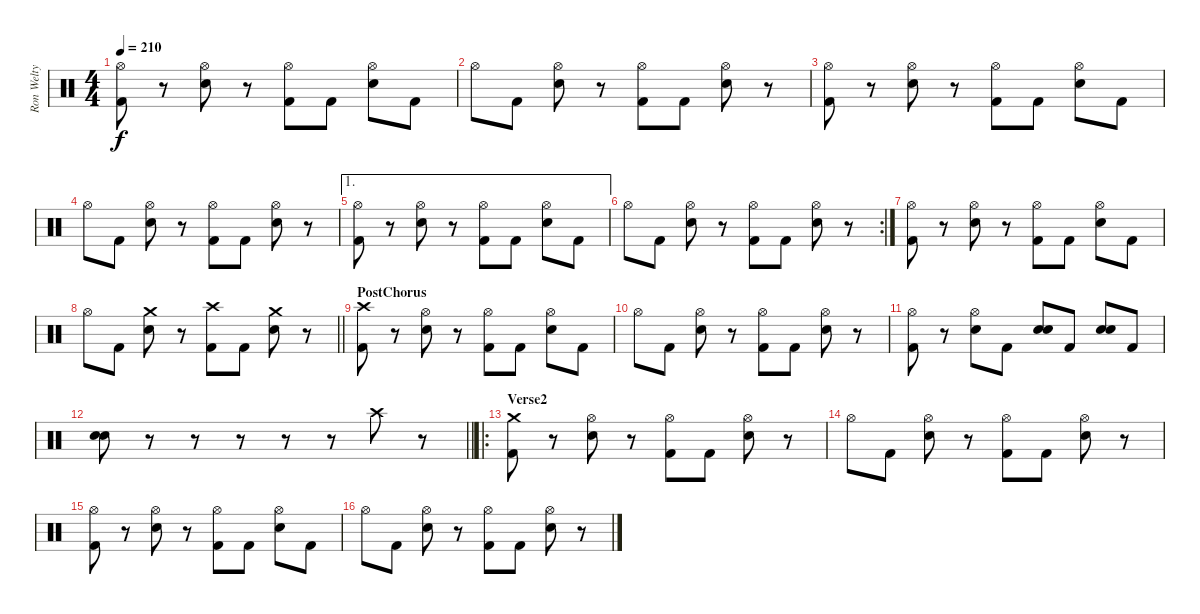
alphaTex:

\track ("Ron Welty" "Ron Welty") {instrument percussion}
\staff {score}
\articulation defaults
\ts (4 4)
\tempo 210
\clef neutral
\ks c
("Hi-Hat (open)" "Kick (hit) 2").8{dy f} r.8 ("Hi-Hat (open)" "Electric Snare (hit)").8 r.8 ("Hi-Hat (open)" "Kick (hit) 2").8 "Kick (hit) 2".8 ("Hi-Hat (open)" "Electric Snare (hit)").8 "Kick (hit) 2".8 |
"Hi-Hat (open)".8 "Kick (hit) 2".8 ("Hi-Hat (open)" "Electric Snare (hit)").8 r.8 ("Hi-Hat (open)" "Kick (hit) 2").8 "Kick (hit) 2".8 ("Hi-Hat (open)" "Electric Snare (hit)").8 r.8 |
("Hi-Hat (open)" "Kick (hit) 2").8 r.8 ("Hi-Hat (open)" "Electric Snare (hit)").8 r.8 ("Hi-Hat (open)" "Kick (hit) 2").8 "Kick (hit) 2".8 ("Hi-Hat (open)" "Electric Snare (hit)").8 "Kick (hit) 2".8 |
"Hi-Hat (open)".8 "Kick (hit) 2".8 ("Hi-Hat (open)" "Electric Snare (hit)").8 r.8 ("Hi-Hat (open)" "Kick (hit) 2").8 "Kick (hit) 2".8 ("Hi-Hat (open)" "Electric Snare (hit)").8 r.8 |
\ae 1
("Hi-Hat (open)" "Kick (hit) 2").8 r.8 ("Hi-Hat (open)" "Electric Snare (hit)").8 r.8 ("Hi-Hat (open)" "Kick (hit) 2").8 "Kick (hit) 2".8 ("Hi-Hat (open)" "Electric Snare (hit)").8 "Kick (hit) 2".8 |
\rc 2 "Hi-Hat (open)".8 "Kick (hit) 2".8
("Hi-Hat (open)" "Electric Snare (hit)").8 r.8 ("Hi-Hat (open)" "Kick (hit) 2").8 "Kick (hit) 2".8 ("Hi-Hat (open)" "Electric Snare (hit)").8 r.8 |
("Hi-Hat (open)" "Kick (hit) 2").8 r.8 ("Hi-Hat (open)" "Electric Snare (hit)").8 r.8 ("Hi-Hat (open)" "Kick (hit) 2").8 "Kick (hit) 2".8 ("Hi-Hat (open)" "Electric Snare (hit)").8 "Kick (hit) 2".8 |
\barLineRight lightlight "Hi-Hat (open)".8 "Kick (hit) 2".8
("Crash medium (hit)" "Electric Snare (hit)").8 r.8 ("Crash high (hit)" "Kick (hit) 2").8 "Kick (hit) 2".8 ("Crash medium (hit)" "Electric Snare (hit)").8 r.8 |
\section ("" "PostChorus")
("Crash high (hit)" "Kick (hit) 2").8 r.8 ("Hi-Hat (open)" "Electric Snare (hit)").8 r.8 ("Hi-Hat (open)" "Kick (hit) 2").8 "Kick (hit) 2".8 ("Hi-Hat (open)" "Electric Snare (hit)").8 "Kick (hit) 2".8 |
"Hi-Hat (open)".8 "Kick (hit) 2".8 ("Hi-Hat (open)" "Electric Snare (hit)").8 r.8 ("Hi-Hat (open)" "Kick (hit) 2").8 "Kick (hit) 2".8 ("Hi-Hat (open)" "Electric Snare (hit)").8 r.8 |
("Hi-Hat (open)" "Kick (hit) 2").8 r.8 ("Hi-Hat (open)" "Electric Snare (hit)").8 "Kick (hit) 2".8 ("Electric Snare (hit)" "Electric Snare (hit)").8 "Kick (hit) 2".8 ("Electric Snare (hit)" "Electric Snare (hit)").8 "Kick (hit) 2".8 |
\barLineRight lightlight
("Electric Snare (hit)" "Electric Snare (hit)").8 r.8 r.8 r.8 r.8 r.8 "Crash high (hit)".8 r.8 |
\ro
\section ("" "Verse2")
("Crash medium (hit)" "Kick (hit) 2").8 r.8 ("Hi-Hat (open)" "Electric Snare (hit)").8 r.8 ("Hi-Hat (open)" "Kick (hit) 2").8 "Kick (hit) 2".8 ("Hi-Hat (open)" "Electric Snare (hit)").8 r.8 |
"Hi-Hat (open)".8 "Kick (hit) 2".8 ("Hi-Hat (open)" "Electric Snare (hit)").8 r.8 ("Hi-Hat (open)" "Kick (hit) 2").8 "Kick (hit) 2".8 ("Hi-Hat (open)" "Electric Snare (hit)").8 r.8 |
("Hi-Hat (open)" "Kick (hit) 2").8 r.8 ("Hi-Hat (open)" "Electric Snare (hit)").8 r.8 ("Hi-Hat (open)" "Kick (hit) 2").8 "Kick (hit) 2".8 ("Hi-Hat (open)" "Electric Snare (hit)").8 "Kick (hit) 2".8 |
"Hi-Hat (open)".8 "Kick (hit) 2".8 ("Hi-Hat (open)" "Electric Snare (hit)").8 r.8 ("Hi-Hat (open)" "Kick (hit) 2").8 "Kick (hit) 2".8 ("Hi-Hat (open)" "Electric Snare (hit)").8 r.8
